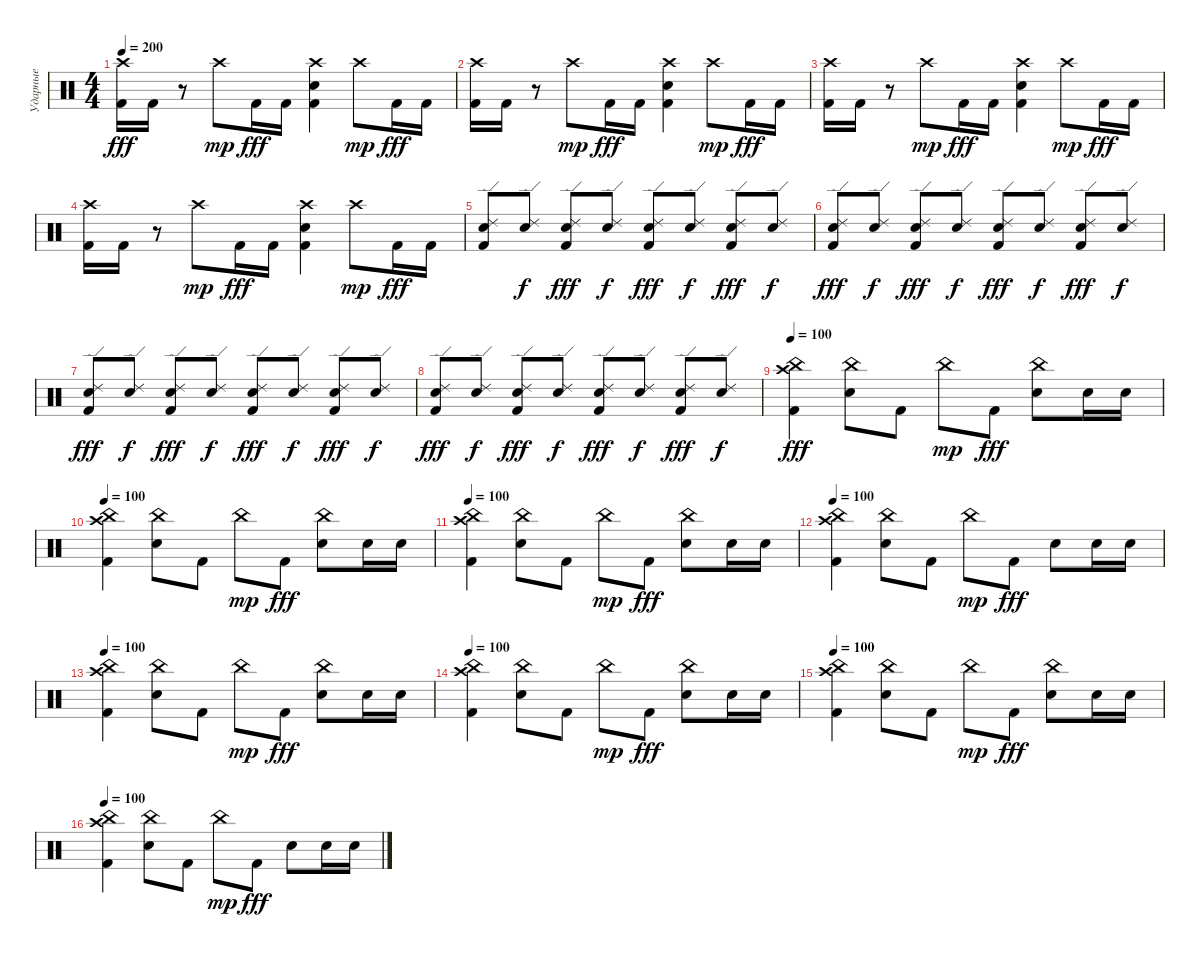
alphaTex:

\track ("Ударные" "Ударные") {instrument percussion}
\staff {score}
\articulation defaults
\ts (4 4)
\tempo 200
\clef neutral
\ks c
("Crash high (hit)" "Kick (hit) 2").16{dy fff} "Kick (hit) 2".16 r.8 "Crash high (hit)".8{dy mp} "Kick (hit) 2".16{dy fff} "Kick (hit) 2".16 ("Crash high (hit)" "Electric Snare (hit)" "Kick (hit) 2").4 "Crash high (hit)".8{dy mp} "Kick (hit) 2".16{dy fff} "Kick (hit) 2".16 |
("Crash high (hit)" "Kick (hit) 2").16 "Kick (hit) 2".16 r.8 "Crash high (hit)".8{dy mp} "Kick (hit) 2".16{dy fff} "Kick (hit) 2".16 ("Crash high (hit)" "Electric Snare (hit)" "Kick (hit) 2").4 "Crash high (hit)".8{dy mp} "Kick (hit) 2".16{dy fff} "Kick (hit) 2".16 |
("Crash high (hit)" "Kick (hit) 2").16 "Kick (hit) 2".16 r.8 "Crash high (hit)".8{dy mp} "Kick (hit) 2".16{dy fff} "Kick (hit) 2".16 ("Crash high (hit)" "Electric Snare (hit)" "Kick (hit) 2").4 "Crash high (hit)".8{dy mp} "Kick (hit) 2".16{dy fff} "Kick (hit) 2".16 |
("Crash high (hit)" "Kick (hit) 2").16 "Kick (hit) 2".16 r.8 "Crash high (hit)".8{dy mp} "Kick (hit) 2".16{dy fff} "Kick (hit) 2".16 ("Crash high (hit)" "Electric Snare (hit)" "Kick (hit) 2").4 "Crash high (hit)".8{dy mp} "Kick (hit) 2".16{dy fff} "Kick (hit) 2".16 |
("Ride (edge) 2" "Electric Snare (hit)" "Kick (hit) 2").8 ("Ride (edge) 2" "Electric Snare (hit)").8{dy f} ("Ride (edge) 2" "Electric Snare (hit)" "Kick (hit) 2").8{dy fff} ("Ride (edge) 2" "Electric Snare (hit)").8{dy f} ("Ride (edge) 2" "Electric Snare (hit)" "Kick (hit) 2").8{dy fff} ("Ride (edge) 2" "Electric Snare (hit)").8{dy f} ("Ride (edge) 2" "Electric Snare (hit)" "Kick (hit) 2").8{dy fff} ("Ride (edge) 2" "Electric Snare (hit)").8{dy f} |
("Ride (edge) 2" "Electric Snare (hit)" "Kick (hit) 2").8{dy fff} ("Ride (edge) 2" "Electric Snare (hit)").8{dy f} ("Ride (edge) 2" "Electric Snare (hit)" "Kick (hit) 2").8{dy fff} ("Ride (edge) 2" "Electric Snare (hit)").8{dy f} ("Ride (edge) 2" "Electric Snare (hit)" "Kick (hit) 2").8{dy fff} ("Ride (edge) 2" "Electric Snare (hit)").8{dy f} ("Ride (edge) 2" "Electric Snare (hit)" "Kick (hit) 2").8{dy fff} ("Ride (edge) 2" "Electric Snare (hit)").8{dy f} |
("Ride (edge) 2" "Electric Snare (hit)" "Kick (hit) 2").8{dy fff} ("Ride (edge) 2" "Electric Snare (hit)").8{dy f} ("Ride (edge) 2" "Electric Snare (hit)" "Kick (hit) 2").8{dy fff} ("Ride (edge) 2" "Electric Snare (hit)").8{dy f} ("Ride (edge) 2" "Electric Snare (hit)" "Kick (hit) 2").8{dy fff} ("Ride (edge) 2" "Electric Snare (hit)").8{dy f} ("Ride (edge) 2" "Electric Snare (hit)" "Kick (hit) 2").8{dy fff} ("Ride (edge) 2" "Electric Snare (hit)").8{dy f} |
("Ride (edge) 2" "Electric Snare (hit)" "Kick (hit) 2").8{dy fff} ("Ride (edge) 2" "Electric Snare (hit)").8{dy f} ("Ride (edge) 2" "Electric Snare (hit)" "Kick (hit) 2").8{dy fff} ("Ride (edge) 2" "Electric Snare (hit)").8{dy f} ("Ride (edge) 2" "Electric Snare (hit)" "Kick (hit) 2").8{dy fff} ("Ride (edge) 2" "Electric Snare (hit)").8{dy f} ("Ride (edge) 2" "Electric Snare (hit)" "Kick (hit) 2").8{dy fff} ("Ride (edge) 2" "Electric Snare (hit)").8{dy f} |
\tempo 100
("Crash high (hit)" "China (hit)" "Kick (hit) 2").4{dy fff} ("China (hit)" "Electric Snare (hit)").8 "Kick (hit) 2".8 "China (hit)".8{dy mp} "Kick (hit) 2".8{dy fff} ("China (hit)" "Electric Snare (hit)").8 "Electric Snare (hit)".16 "Electric Snare (hit)".16 |
\tempo 100
("Crash high (hit)" "China (hit)" "Kick (hit) 2").4 ("China (hit)" "Electric Snare (hit)").8 "Kick (hit) 2".8 "China (hit)".8{dy mp} "Kick (hit) 2".8{dy fff} ("China (hit)" "Electric Snare (hit)").8 "Electric Snare (hit)".16 "Electric Snare (hit)".16 |
\tempo 100
("Crash high (hit)" "China (hit)" "Kick (hit) 2").4 ("China (hit)" "Electric Snare (hit)").8 "Kick (hit) 2".8 "China (hit)".8{dy mp} "Kick (hit) 2".8{dy fff} ("China (hit)" "Electric Snare (hit)").8 "Electric Snare (hit)".16 "Electric Snare (hit)".16 |
\tempo 100
("Crash high (hit)" "China (hit)" "Kick (hit) 2").4 ("China (hit)" "Electric Snare (hit)").8 "Kick (hit) 2".8 "China (hit)".8{dy mp} "Kick (hit) 2".8{dy fff} "Electric Snare (hit)".8 "Electric Snare (hit)".16 "Electric Snare (hit)".16 |
\tempo 100
("Crash high (hit)" "China (hit)" "Kick (hit) 2").4 ("China (hit)" "Electric Snare (hit)").8 "Kick (hit) 2".8 "China (hit)".8{dy mp} "Kick (hit) 2".8{dy fff} ("China (hit)" "Electric Snare (hit)").8 "Electric Snare (hit)".16 "Electric Snare (hit)".16 |
\tempo 100
("Crash high (hit)" "China (hit)" "Kick (hit) 2").4 ("China (hit)" "Electric Snare (hit)").8 "Kick (hit) 2".8 "China (hit)".8{dy mp} "Kick (hit) 2".8{dy fff} ("China (hit)" "Electric Snare (hit)").8 "Electric Snare (hit)".16 "Electric Snare (hit)".16 |
\tempo 100
("Crash high (hit)" "China (hit)" "Kick (hit) 2").4 ("China (hit)" "Electric Snare (hit)").8 "Kick (hit) 2".8 "China (hit)".8{dy mp} "Kick (hit) 2".8{dy fff} ("China (hit)" "Electric Snare (hit)").8 "Electric Snare (hit)".16 "Electric Snare (hit)".16 |
\tempo 100
("Crash high (hit)" "China (hit)" "Kick (hit) 2").4 ("China (hit)" "Electric Snare (hit)").8 "Kick (hit) 2".8 "China (hit)".8{dy mp} "Kick (hit) 2".8{dy fff} "Electric Snare (hit)".8 "Electric Snare (hit)".16 "Electric Snare (hit)".16
